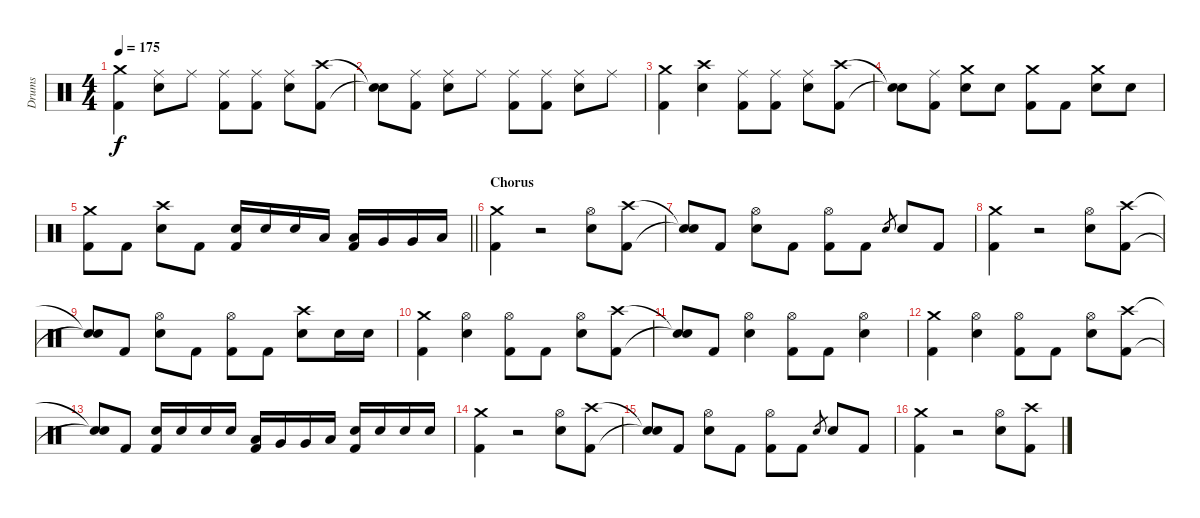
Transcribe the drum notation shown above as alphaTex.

\track ("Drums" "Drums") {instrument percussion}
\staff {score}
\articulation defaults
\ts (4 4)
\tempo 175
\clef neutral
\ks c
("Crash medium (hit)" "Kick (hit) 2").4{dy f} ("Ride (middle)" "Electric Snare (hit)").8 "Ride (middle)".8 ("Ride (middle)" "Kick (hit) 2").8 ("Ride (middle)" "Kick (hit) 2").8 ("Ride (middle)" "Electric Snare (hit)").8 ("Crash high (hit)" "Kick (hit) 2").8 |
("Snare (hit)"{t} "Snare (hit)"{t}).8 ("Ride (middle)" "Kick (hit) 2").8 ("Ride (middle)" "Electric Snare (hit)").8 "Ride (middle)".8 ("Ride (middle)" "Kick (hit) 2").8 ("Ride (middle)" "Kick (hit) 2").8 ("Ride (middle)" "Electric Snare (hit)").8 "Ride (middle)".8 |
("Crash medium (hit)" "Kick (hit) 2").4 ("Crash high (hit)" "Electric Snare (hit)").4 ("Ride (middle)" "Kick (hit) 2").8 ("Ride (middle)" "Kick (hit) 2").8 ("Ride (middle)" "Electric Snare (hit)").8 ("Crash high (hit)" "Kick (hit) 2").8 |
("Snare (hit)"{t} "Snare (hit)"{t}).8 ("Ride (middle)" "Kick (hit) 2").8 ("Crash medium (hit)" "Electric Snare (hit)").8 "Electric Snare (hit)".8 ("Crash medium (hit)" "Kick (hit) 2").8 "Kick (hit) 2".8 ("Crash medium (hit)" "Electric Snare (hit)").8 "Electric Snare (hit)".8 |
\barLineRight lightlight
("Crash medium (hit)" "Kick (hit) 2").8 "Kick (hit) 2".8 ("Crash high (hit)" "Electric Snare (hit)").8 "Kick (hit) 2".8 ("Electric Snare (hit)" "Kick (hit) 2").16 "Electric Snare (hit)".16 "Electric Snare (hit)".16 "Low Tom (hit)".16 ("Low Tom (hit)" "Kick (hit) 2").16 "Very Low Tom (hit)".16 "Very Low Tom (hit)".16 "Low Floor Tom (hit)".16 |
\section ("" "Chorus")
("Crash medium (hit)" "Kick (hit) 2").4 r.2 ("Hi-Hat (open)" "Electric Snare (hit)").8 ("Crash high (hit)" "Kick (hit) 2").8 |
("Snare (hit)"{t} "Snare (hit)"{t}).8 "Kick (hit) 2".8 ("Hi-Hat (open)" "Electric Snare (hit)").8 "Kick (hit) 2".8 ("Hi-Hat (open)" "Kick (hit) 2").8 "Kick (hit) 2".8 "Electric Snare (hit)".8{gr} "Electric Snare (hit)".8 "Kick (hit) 2".8 |
("Crash medium (hit)" "Kick (hit) 2").4 r.2 ("Hi-Hat (open)" "Electric Snare (hit)").8 ("Crash high (hit)" "Kick (hit) 2").8 |
("Snare (hit)"{t} "Snare (hit)"{t}).8 "Kick (hit) 2".8 ("Hi-Hat (open)" "Electric Snare (hit)").8 "Kick (hit) 2".8 ("Hi-Hat (open)" "Kick (hit) 2").8 "Kick (hit) 2".8 ("Crash high (hit)" "Electric Snare (hit)").8 "Electric Snare (hit)".16 "Electric Snare (hit)".16 |
("Crash medium (hit)" "Kick (hit) 2").4 ("Hi-Hat (open)" "Electric Snare (hit)").4 ("Hi-Hat (open)" "Kick (hit) 2").8 "Kick (hit) 2".8 ("Hi-Hat (open)" "Electric Snare (hit)").8 ("Crash high (hit)" "Kick (hit) 2").8 |
("Snare (hit)"{t} "Snare (hit)"{t}).8 "Kick (hit) 2".8 ("Hi-Hat (open)" "Electric Snare (hit)").4 ("Hi-Hat (open)" "Kick (hit) 2").8 "Kick (hit) 2".8 ("Hi-Hat (open)" "Electric Snare (hit)").4 |
("Crash medium (hit)" "Kick (hit) 2").4 ("Hi-Hat (open)" "Electric Snare (hit)").4 ("Hi-Hat (open)" "Kick (hit) 2").8 "Kick (hit) 2".8 ("Hi-Hat (open)" "Electric Snare (hit)").8 ("Crash high (hit)" "Kick (hit) 2").8 |
("Snare (hit)"{t} "Snare (hit)"{t}).8 "Kick (hit) 2".8 ("Electric Snare (hit)" "Kick (hit) 2").16 "Electric Snare (hit)".16 "Electric Snare (hit)".16 "Electric Snare (hit)".16 ("Low Tom (hit)" "Kick (hit) 2").16 "Very Low Tom (hit)".16 "Very Low Tom (hit)".16 "Low Floor Tom (hit)".16 ("Electric Snare (hit)" "Kick (hit) 2").16 "Electric Snare (hit)".16 "Electric Snare (hit)".16 "Electric Snare (hit)".16 |
("Crash medium (hit)" "Kick (hit) 2").4 r.2 ("Hi-Hat (open)" "Electric Snare (hit)").8 ("Crash high (hit)" "Kick (hit) 2").8 |
("Snare (hit)"{t} "Snare (hit)"{t}).8 "Kick (hit) 2".8 ("Hi-Hat (open)" "Electric Snare (hit)").8 "Kick (hit) 2".8 ("Hi-Hat (open)" "Kick (hit) 2").8 "Kick (hit) 2".8 "Electric Snare (hit)".8{gr} "Electric Snare (hit)".8 "Kick (hit) 2".8 |
("Crash medium (hit)" "Kick (hit) 2").4 r.2 ("Hi-Hat (open)" "Electric Snare (hit)").8 ("Crash high (hit)" "Kick (hit) 2").8
